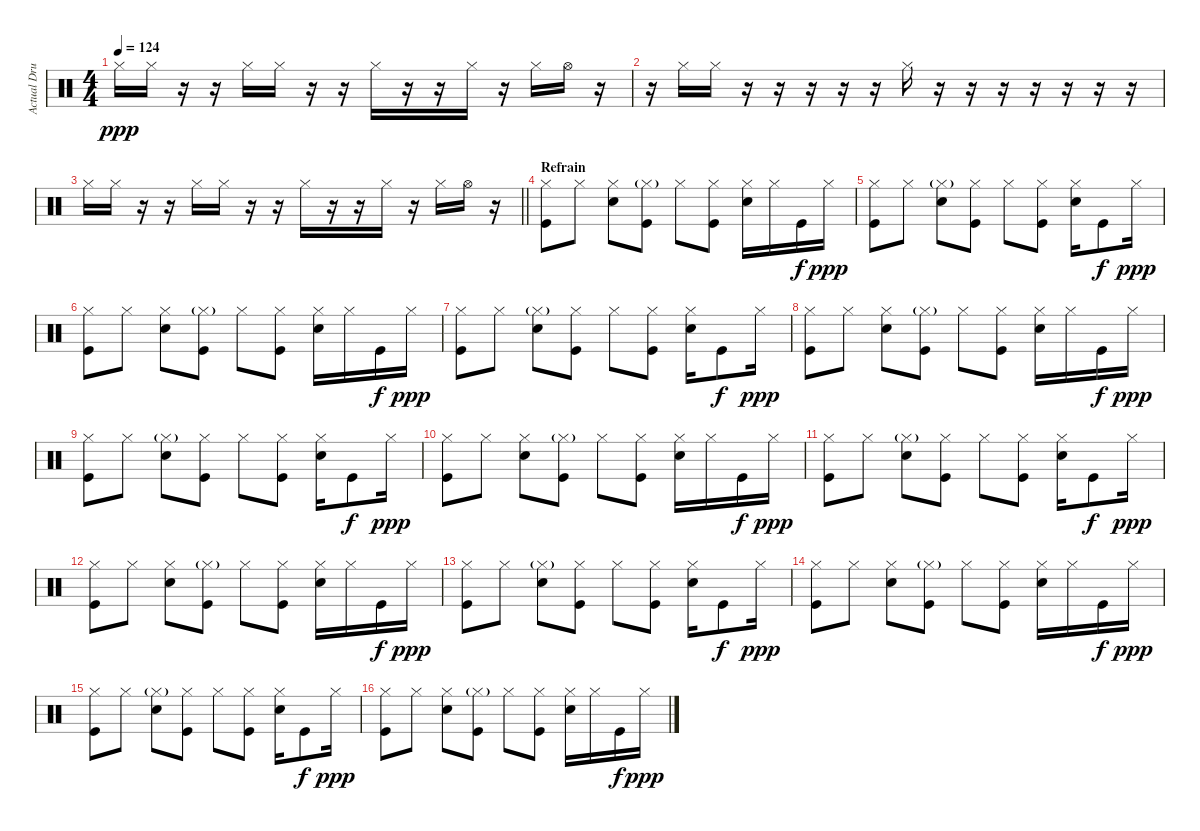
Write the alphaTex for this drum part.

\track ("Actual Drums" "Actual Dru") {instrument percussion}
\staff {score}
\articulation defaults
\ts (4 4)
\tempo 124
\clef neutral
\ks c "Hi-Hat (closed)".16{dy ppp} "Hi-Hat (closed)".16
r.16 r.16 "Hi-Hat (closed)".16 "Hi-Hat (closed)".16 r.16 r.16 "Hi-Hat (closed)".16 r.16 r.16 "Hi-Hat (closed)".16 r.16 "Hi-Hat (closed)".16 "Hi-Hat (open)".16 r.16 |
r.16 "Hi-Hat (closed)".16 "Hi-Hat (closed)".16 r.16 r.16 r.16 r.16 r.16 "Hi-Hat (closed)".16 r.16 r.16 r.16 r.16 r.16 r.16 r.16 |
\barLineRight lightlight "Hi-Hat (closed)".16 "Hi-Hat (closed)".16
r.16 r.16 "Hi-Hat (closed)".16 "Hi-Hat (closed)".16 r.16 r.16 "Hi-Hat (closed)".16 r.16 r.16 "Hi-Hat (closed)".16 r.16 "Hi-Hat (closed)".16 "Hi-Hat (open)".16 r.16 |
\section ("" "Refrain")
("Hi-Hat (closed)" "Kick (hit)").8 "Hi-Hat (closed)".8 ("Hi-Hat (closed)" "Snare (hit) 2").8 ("Hi-Hat (closed)"{g} "Kick (hit)").8 "Hi-Hat (closed)".8 ("Hi-Hat (closed)" "Kick (hit)").8 ("Hi-Hat (closed)" "Snare (hit) 2").16 "Hi-Hat (closed)".16 "Kick (hit)".16{dy f} "Hi-Hat (closed)".16{dy ppp} |
("Hi-Hat (closed)" "Kick (hit)").8 "Hi-Hat (closed)".8 ("Hi-Hat (closed)"{g} "Snare (hit) 2").8 ("Hi-Hat (closed)" "Kick (hit)").8 "Hi-Hat (closed)".8 ("Hi-Hat (closed)" "Kick (hit)").8 ("Hi-Hat (closed)" "Snare (hit) 2").16 "Kick (hit)".8{dy f} "Hi-Hat (closed)".16{dy ppp} |
("Hi-Hat (closed)" "Kick (hit)").8 "Hi-Hat (closed)".8 ("Hi-Hat (closed)" "Snare (hit) 2").8 ("Hi-Hat (closed)"{g} "Kick (hit)").8 "Hi-Hat (closed)".8 ("Hi-Hat (closed)" "Kick (hit)").8 ("Hi-Hat (closed)" "Snare (hit) 2").16 "Hi-Hat (closed)".16 "Kick (hit)".16{dy f} "Hi-Hat (closed)".16{dy ppp} |
("Hi-Hat (closed)" "Kick (hit)").8 "Hi-Hat (closed)".8 ("Hi-Hat (closed)"{g} "Snare (hit) 2").8 ("Hi-Hat (closed)" "Kick (hit)").8 "Hi-Hat (closed)".8 ("Hi-Hat (closed)" "Kick (hit)").8 ("Hi-Hat (closed)" "Snare (hit) 2").16 "Kick (hit)".8{dy f} "Hi-Hat (closed)".16{dy ppp} |
("Hi-Hat (closed)" "Kick (hit)").8 "Hi-Hat (closed)".8 ("Hi-Hat (closed)" "Snare (hit) 2").8 ("Hi-Hat (closed)"{g} "Kick (hit)").8 "Hi-Hat (closed)".8 ("Hi-Hat (closed)" "Kick (hit)").8 ("Hi-Hat (closed)" "Snare (hit) 2").16 "Hi-Hat (closed)".16 "Kick (hit)".16{dy f} "Hi-Hat (closed)".16{dy ppp} |
("Hi-Hat (closed)" "Kick (hit)").8 "Hi-Hat (closed)".8 ("Hi-Hat (closed)"{g} "Snare (hit) 2").8 ("Hi-Hat (closed)" "Kick (hit)").8 "Hi-Hat (closed)".8 ("Hi-Hat (closed)" "Kick (hit)").8 ("Hi-Hat (closed)" "Snare (hit) 2").16 "Kick (hit)".8{dy f} "Hi-Hat (closed)".16{dy ppp} |
("Hi-Hat (closed)" "Kick (hit)").8 "Hi-Hat (closed)".8 ("Hi-Hat (closed)" "Snare (hit) 2").8 ("Hi-Hat (closed)"{g} "Kick (hit)").8 "Hi-Hat (closed)".8 ("Hi-Hat (closed)" "Kick (hit)").8 ("Hi-Hat (closed)" "Snare (hit) 2").16 "Hi-Hat (closed)".16 "Kick (hit)".16{dy f} "Hi-Hat (closed)".16{dy ppp} |
("Hi-Hat (closed)" "Kick (hit)").8 "Hi-Hat (closed)".8 ("Hi-Hat (closed)"{g} "Snare (hit) 2").8 ("Hi-Hat (closed)" "Kick (hit)").8 "Hi-Hat (closed)".8 ("Hi-Hat (closed)" "Kick (hit)").8 ("Hi-Hat (closed)" "Snare (hit) 2").16 "Kick (hit)".8{dy f} "Hi-Hat (closed)".16{dy ppp} |
("Hi-Hat (closed)" "Kick (hit)").8 "Hi-Hat (closed)".8 ("Hi-Hat (closed)" "Snare (hit) 2").8 ("Hi-Hat (closed)"{g} "Kick (hit)").8 "Hi-Hat (closed)".8 ("Hi-Hat (closed)" "Kick (hit)").8 ("Hi-Hat (closed)" "Snare (hit) 2").16 "Hi-Hat (closed)".16 "Kick (hit)".16{dy f} "Hi-Hat (closed)".16{dy ppp} |
("Hi-Hat (closed)" "Kick (hit)").8 "Hi-Hat (closed)".8 ("Hi-Hat (closed)"{g} "Snare (hit) 2").8 ("Hi-Hat (closed)" "Kick (hit)").8 "Hi-Hat (closed)".8 ("Hi-Hat (closed)" "Kick (hit)").8 ("Hi-Hat (closed)" "Snare (hit) 2").16 "Kick (hit)".8{dy f} "Hi-Hat (closed)".16{dy ppp} |
("Hi-Hat (closed)" "Kick (hit)").8 "Hi-Hat (closed)".8 ("Hi-Hat (closed)" "Snare (hit) 2").8 ("Hi-Hat (closed)"{g} "Kick (hit)").8 "Hi-Hat (closed)".8 ("Hi-Hat (closed)" "Kick (hit)").8 ("Hi-Hat (closed)" "Snare (hit) 2").16 "Hi-Hat (closed)".16 "Kick (hit)".16{dy f} "Hi-Hat (closed)".16{dy ppp} |
("Hi-Hat (closed)" "Kick (hit)").8 "Hi-Hat (closed)".8 ("Hi-Hat (closed)"{g} "Snare (hit) 2").8 ("Hi-Hat (closed)" "Kick (hit)").8 "Hi-Hat (closed)".8 ("Hi-Hat (closed)" "Kick (hit)").8 ("Hi-Hat (closed)" "Snare (hit) 2").16 "Kick (hit)".8{dy f} "Hi-Hat (closed)".16{dy ppp} |
("Hi-Hat (closed)" "Kick (hit)").8 "Hi-Hat (closed)".8 ("Hi-Hat (closed)" "Snare (hit) 2").8 ("Hi-Hat (closed)"{g} "Kick (hit)").8 "Hi-Hat (closed)".8 ("Hi-Hat (closed)" "Kick (hit)").8 ("Hi-Hat (closed)" "Snare (hit) 2").16 "Hi-Hat (closed)".16 "Kick (hit)".16{dy f} "Hi-Hat (closed)".16{dy ppp}
